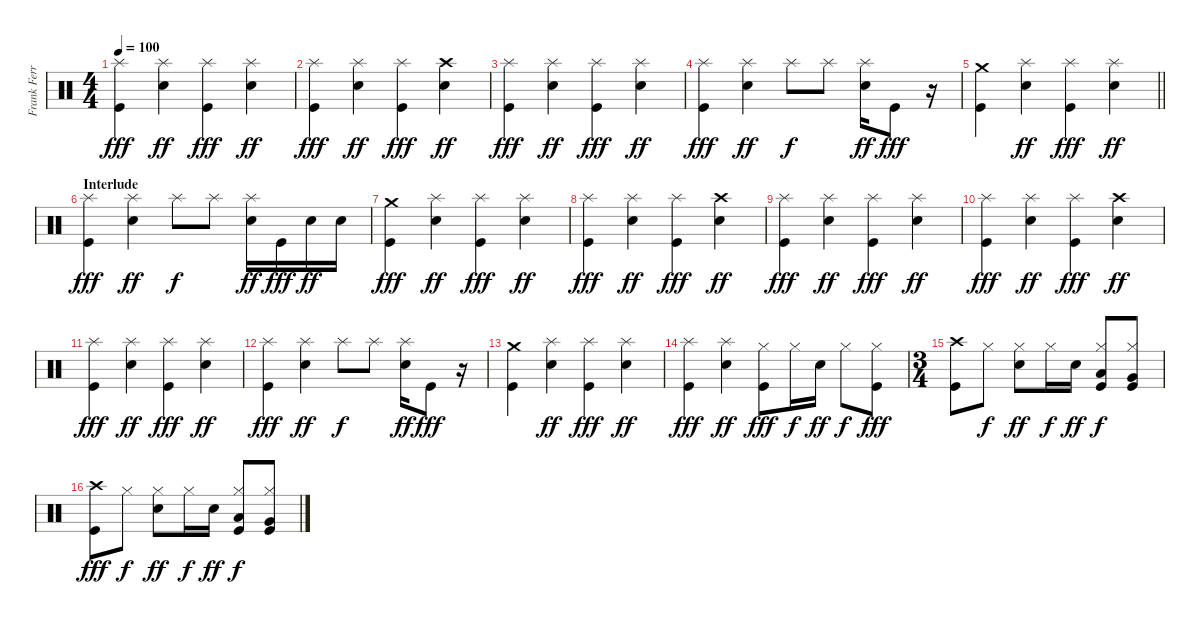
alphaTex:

\track ("Frank Ferrer" "Frank Ferr") {instrument percussion}
\staff {score}
\articulation defaults
\ts (4 4)
\tempo 100
\clef neutral
\ks c
("Kick (hit)" "Splash (hit)").4{dy fff} ("Snare (hit) 2" "Splash (hit)").4{dy ff} ("Kick (hit)" "Splash (hit)").4{dy fff} ("Snare (hit) 2" "Splash (hit)").4{dy ff} |
("Kick (hit)" "Splash (hit)").4{dy fff} ("Snare (hit) 2" "Splash (hit)").4{dy ff} ("Kick (hit)" "Splash (hit)").4{dy fff} ("Snare (hit) 2" "Crash high (hit)").4{dy ff} |
("Kick (hit)" "Splash (hit)").4{dy fff} ("Snare (hit) 2" "Splash (hit)").4{dy ff} ("Kick (hit)" "Splash (hit)").4{dy fff} ("Snare (hit) 2" "Splash (hit)").4{dy ff} |
("Kick (hit)" "Splash (hit)").4{dy fff} ("Snare (hit) 2" "Splash (hit)").4{dy ff} "Splash (hit)".8{dy f} "Splash (hit)".8 ("Snare (hit) 2" "Splash (hit)").16{dy ff} "Kick (hit)".8{dy fff} r.16 |
\barLineRight lightlight
("Kick (hit)" "Crash medium (hit)").4 ("Snare (hit) 2" "Splash (hit)").4{dy ff} ("Kick (hit)" "Splash (hit)").4{dy fff} ("Snare (hit) 2" "Splash (hit)").4{dy ff} |
\section ("" "Interlude")
("Kick (hit)" "Splash (hit)").4{dy fff} ("Snare (hit) 2" "Splash (hit)").4{dy ff} "Splash (hit)".8{dy f} "Splash (hit)".8 ("Snare (hit) 2" "Splash (hit)").16{dy ff} "Kick (hit)".16{dy fff} "Snare (hit) 2".16{dy ff} "Snare (hit) 2".16 |
("Kick (hit)" "Crash medium (hit)").4{dy fff} ("Snare (hit) 2" "Splash (hit)").4{dy ff} ("Kick (hit)" "Splash (hit)").4{dy fff} ("Snare (hit) 2" "Splash (hit)").4{dy ff} |
("Kick (hit)" "Splash (hit)").4{dy fff} ("Snare (hit) 2" "Splash (hit)").4{dy ff} ("Kick (hit)" "Splash (hit)").4{dy fff} ("Snare (hit) 2" "Crash high (hit)").4{dy ff} |
("Kick (hit)" "Splash (hit)").4{dy fff} ("Snare (hit) 2" "Splash (hit)").4{dy ff} ("Kick (hit)" "Splash (hit)").4{dy fff} ("Snare (hit) 2" "Splash (hit)").4{dy ff} |
("Kick (hit)" "Splash (hit)").4{dy fff} ("Snare (hit) 2" "Splash (hit)").4{dy ff} ("Kick (hit)" "Splash (hit)").4{dy fff} ("Snare (hit) 2" "Crash high (hit)").4{dy ff} |
("Kick (hit)" "Splash (hit)").4{dy fff} ("Snare (hit) 2" "Splash (hit)").4{dy ff} ("Kick (hit)" "Splash (hit)").4{dy fff} ("Snare (hit) 2" "Splash (hit)").4{dy ff} |
("Kick (hit)" "Splash (hit)").4{dy fff} ("Snare (hit) 2" "Splash (hit)").4{dy ff} "Splash (hit)".8{dy f} "Splash (hit)".8 ("Snare (hit) 2" "Splash (hit)").16{dy ff} "Kick (hit)".8{dy fff} r.16 |
("Kick (hit)" "Crash medium (hit)").4 ("Snare (hit) 2" "Splash (hit)").4{dy ff} ("Kick (hit)" "Splash (hit)").4{dy fff} ("Snare (hit) 2" "Splash (hit)").4{dy ff} |
("Kick (hit)" "Splash (hit)").4{dy fff} ("Snare (hit) 2" "Splash (hit)").4{dy ff} ("Kick (hit)" "Hi-Hat (closed)").8{dy fff} "Hi-Hat (closed)".16{dy f} "Snare (hit) 2".16{dy ff} "Hi-Hat (closed)".8{dy f} ("Kick (hit)" "Hi-Hat (closed)").8{dy fff} |
\ts (3 4)
("Kick (hit)" "Crash high (hit)").8 "Hi-Hat (closed)".8{dy f} ("Snare (hit) 2" "Hi-Hat (closed)").8{dy ff} "Hi-Hat (closed)".16{dy f} "Snare (hit) 2".16{dy ff} ("Kick (hit)" "Low Tom (hit)" "Hi-Hat (closed)").8{dy f} ("Kick (hit)" "Very Low Tom (hit)" "Hi-Hat (closed)").8 |
("Kick (hit)" "Crash high (hit)").8{dy fff} "Hi-Hat (closed)".8{dy f} ("Snare (hit) 2" "Hi-Hat (closed)").8{dy ff} "Hi-Hat (closed)".16{dy f} "Snare (hit) 2".16{dy ff} ("Kick (hit)" "Low Tom (hit)" "Hi-Hat (closed)").8{dy f} ("Kick (hit)" "Very Low Tom (hit)" "Hi-Hat (closed)").8
